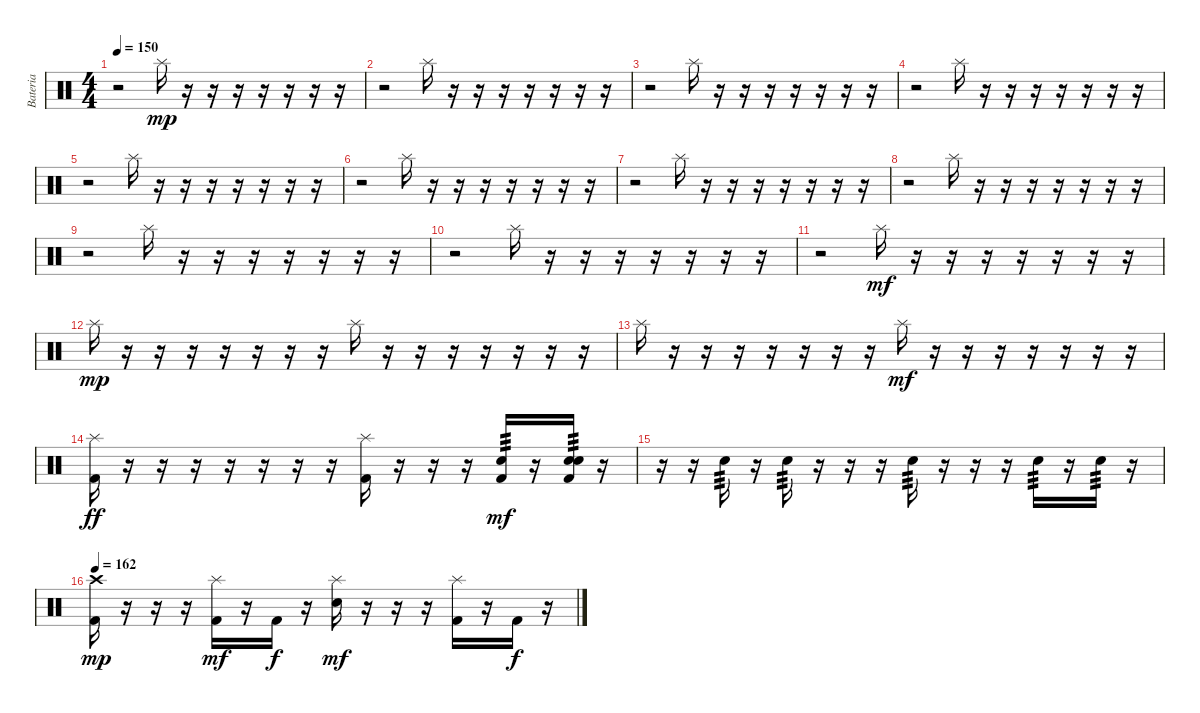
\track ("Bateria" "Bateria") {instrument percussion}
\staff {score}
\articulation defaults
\ts (4 4)
\tempo 150
\clef neutral
\ks c
r.2{dy mp} "Splash (hit)".16 r.16 r.16 r.16 r.16 r.16 r.16 r.16 |
r.2 "Splash (hit)".16 r.16 r.16 r.16 r.16 r.16 r.16 r.16 |
r.2 "Splash (hit)".16 r.16 r.16 r.16 r.16 r.16 r.16 r.16 |
r.2 "Splash (hit)".16 r.16 r.16 r.16 r.16 r.16 r.16 r.16 |
r.2 "Splash (hit)".16 r.16 r.16 r.16 r.16 r.16 r.16 r.16 |
r.2 "Splash (hit)".16 r.16 r.16 r.16 r.16 r.16 r.16 r.16 |
r.2 "Splash (hit)".16 r.16 r.16 r.16 r.16 r.16 r.16 r.16 |
r.2 "Splash (hit)".16 r.16 r.16 r.16 r.16 r.16 r.16 r.16 |
r.2 "Splash (hit)".16 r.16 r.16 r.16 r.16 r.16 r.16 r.16 |
r.2 "Splash (hit)".16 r.16 r.16 r.16 r.16 r.16 r.16 r.16 |
r.2 "Splash (hit)".16{dy mf} r.16 r.16 r.16 r.16 r.16 r.16 r.16 |
"Splash (hit)".16{dy mp volume 15} r.16 r.16 r.16 r.16 r.16 r.16 r.16 "Splash (hit)".16 r.16 r.16 r.16 r.16 r.16 r.16 r.16 |
"Splash (hit)".16 r.16 r.16 r.16 r.16 r.16 r.16 r.16 "Splash (hit)".16{dy mf} r.16 r.16 r.16 r.16 r.16 r.16 r.16 |
("Splash (hit)" "Kick (hit) 2").16{dy ff} r.16 r.16 r.16 r.16 r.16 r.16 r.16 ("Splash (hit)" "Kick (hit) 2").16{volume 14} r.16 r.16 r.16 ("Kick (hit) 2" "Electric Snare (hit)").16{tp 3 dy mf} r.16 ("Kick (hit) 2" "Electric Snare (hit)" "Electric Snare (hit)").16{tp 3} r.16 |
r.16 r.16 "Snare (hit) 2".16{tp 3} r.16 "Snare (hit) 2".16{tp 3} r.16 r.16 r.16 "Snare (hit) 2".16{tp 3} r.16 r.16 r.16 "Snare (hit) 2".16{tp 3} r.16 "Snare (hit) 2".16{tp 3} r.16 |
\tempo 162
("Crash high (hit)" "Kick (hit) 2").16{dy mp} r.16 r.16 r.16 ("Splash (hit)" "Kick (hit) 2").16{dy mf} r.16 "Kick (hit) 2".16{dy f} r.16 ("Splash (hit)" "Electric Snare (hit)").16{dy mf} r.16 r.16 r.16 ("Splash (hit)" "Kick (hit) 2").16 r.16 "Kick (hit) 2".16{dy f} r.16
